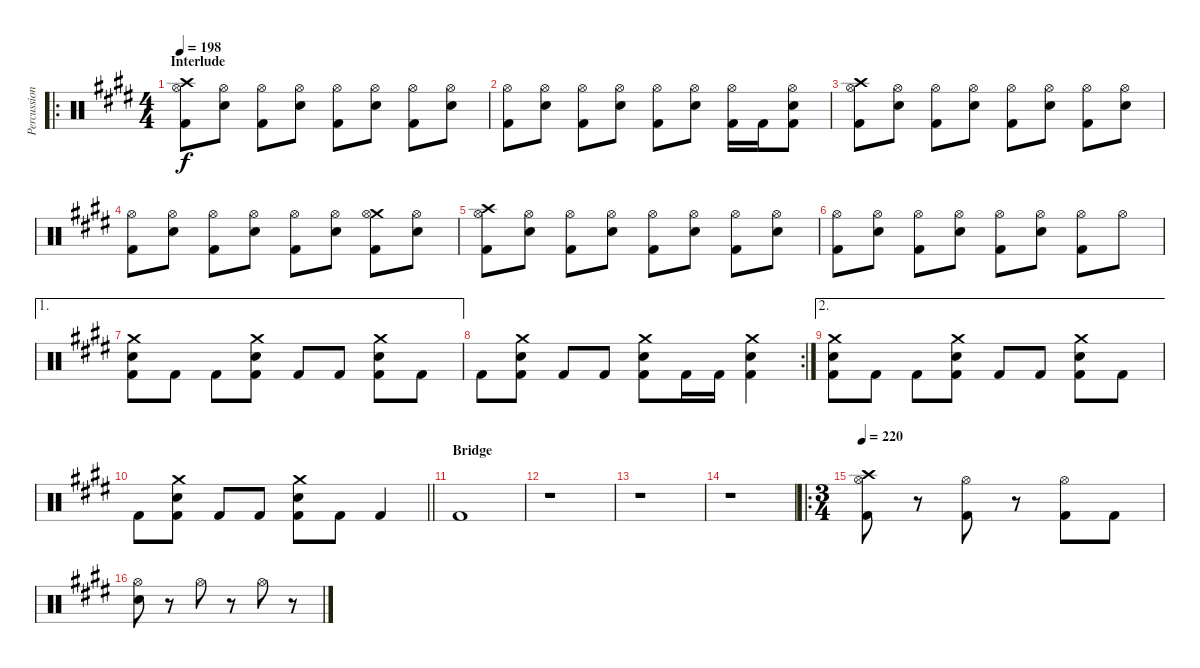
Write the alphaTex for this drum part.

\track ("Percussion" "Percussion") {instrument percussion}
\staff {score}
\articulation defaults
\ro
\ts (4 4)
\section ("" "Interlude")
\tempo 198
\clef neutral
\ks e
("Crash high (hit)" "Hi-Hat (open)" "Kick (hit) 2").8{dy f} ("Hi-Hat (open)" "Snare (hit) 2").8 ("Hi-Hat (open)" "Kick (hit) 2").8 ("Hi-Hat (open)" "Snare (hit) 2").8 ("Hi-Hat (open)" "Kick (hit) 2").8 ("Hi-Hat (open)" "Snare (hit) 2").8 ("Hi-Hat (open)" "Kick (hit) 2").8 ("Hi-Hat (open)" "Snare (hit) 2").8 |
("Hi-Hat (open)" "Kick (hit) 2").8 ("Hi-Hat (open)" "Snare (hit) 2").8 ("Hi-Hat (open)" "Kick (hit) 2").8 ("Hi-Hat (open)" "Snare (hit) 2").8 ("Hi-Hat (open)" "Kick (hit) 2").8 ("Hi-Hat (open)" "Snare (hit) 2").8 ("Hi-Hat (open)" "Kick (hit) 2").16 "Kick (hit) 2".16 ("Hi-Hat (open)" "Snare (hit) 2" "Kick (hit) 2").8 |
("Crash high (hit)" "Hi-Hat (open)" "Kick (hit) 2").8 ("Hi-Hat (open)" "Snare (hit) 2").8 ("Hi-Hat (open)" "Kick (hit) 2").8 ("Hi-Hat (open)" "Snare (hit) 2").8 ("Hi-Hat (open)" "Kick (hit) 2").8 ("Hi-Hat (open)" "Snare (hit) 2").8 ("Hi-Hat (open)" "Kick (hit) 2").8 ("Hi-Hat (open)" "Snare (hit) 2").8 |
("Hi-Hat (open)" "Kick (hit) 2").8 ("Hi-Hat (open)" "Snare (hit) 2").8 ("Hi-Hat (open)" "Kick (hit) 2").8 ("Hi-Hat (open)" "Snare (hit) 2").8 ("Hi-Hat (open)" "Kick (hit) 2").8 ("Hi-Hat (open)" "Snare (hit) 2").8 ("Crash medium (hit)" "Hi-Hat (open)" "Kick (hit) 2").8 ("Hi-Hat (open)" "Snare (hit) 2").8 |
("Crash high (hit)" "Hi-Hat (open)" "Kick (hit) 2").8 ("Hi-Hat (open)" "Snare (hit) 2").8 ("Hi-Hat (open)" "Kick (hit) 2").8 ("Hi-Hat (open)" "Snare (hit) 2").8 ("Hi-Hat (open)" "Kick (hit) 2").8 ("Hi-Hat (open)" "Snare (hit) 2").8 ("Hi-Hat (open)" "Kick (hit) 2").8 ("Hi-Hat (open)" "Snare (hit) 2").8 |
("Hi-Hat (open)" "Kick (hit) 2").8 ("Hi-Hat (open)" "Snare (hit) 2").8 ("Hi-Hat (open)" "Kick (hit) 2").8 ("Hi-Hat (open)" "Snare (hit) 2").8 ("Hi-Hat (open)" "Kick (hit) 2").8 ("Hi-Hat (open)" "Snare (hit) 2").8 ("Hi-Hat (open)" "Kick (hit) 2").8 "Hi-Hat (open)".8 |
\ae 1
("Crash medium (hit)" "Snare (hit) 2" "Kick (hit) 2").8 "Kick (hit) 2".8 "Kick (hit) 2".8 ("Crash medium (hit)" "Snare (hit) 2" "Kick (hit) 2").8 "Kick (hit) 2".8 "Kick (hit) 2".8 ("Crash medium (hit)" "Snare (hit) 2" "Kick (hit) 2").8 "Kick (hit) 2".8 |
\rc 2 "Kick (hit) 2".8
("Crash medium (hit)" "Snare (hit) 2" "Kick (hit) 2").8 "Kick (hit) 2".8 "Kick (hit) 2".8 ("Crash medium (hit)" "Snare (hit) 2" "Kick (hit) 2").8 "Kick (hit) 2".16 "Kick (hit) 2".16 ("Crash medium (hit)" "Snare (hit) 2" "Kick (hit) 2").4 |
\ae 2
("Crash medium (hit)" "Snare (hit) 2" "Kick (hit) 2").8 "Kick (hit) 2".8 "Kick (hit) 2".8 ("Crash medium (hit)" "Snare (hit) 2" "Kick (hit) 2").8 "Kick (hit) 2".8 "Kick (hit) 2".8 ("Crash medium (hit)" "Snare (hit) 2" "Kick (hit) 2").8 "Kick (hit) 2".8 |
\barLineRight lightlight "Kick (hit) 2".8
("Crash medium (hit)" "Snare (hit) 2" "Kick (hit) 2").8 "Kick (hit) 2".8 "Kick (hit) 2".8 ("Crash medium (hit)" "Snare (hit) 2" "Kick (hit) 2").8 "Kick (hit) 2".8 "Kick (hit) 2".4 |
\section ("" "Bridge")
"Kick (hit) 2".1 |
r.1 |
r.1 |
r.1 |
\ro
\ts (3 4)
\tempo 220
("Crash high (hit)" "Hi-Hat (open)" "Kick (hit) 2").8 r.8 ("Hi-Hat (open)" "Kick (hit) 2").8 r.8 ("Hi-Hat (open)" "Kick (hit) 2").8 "Kick (hit) 2".8 |
("Hi-Hat (open)" "Snare (hit) 2").8 r.8 "Hi-Hat (open)".8 r.8 "Hi-Hat (open)".8 r.8
